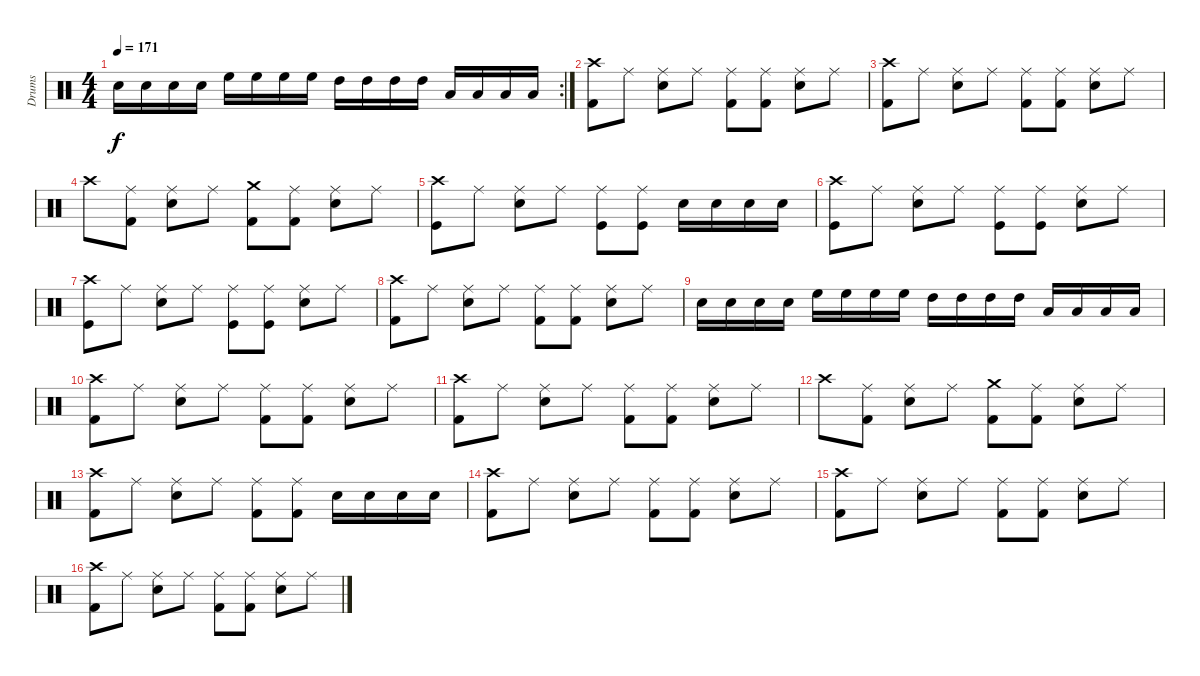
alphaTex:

\track ("Drums" "Drums") {instrument percussion}
\staff {score}
\articulation defaults
\rc 2
\ts (4 4)
\tempo 171
\clef neutral
\ks c "Electric Snare (hit)".16{dy f} "Electric Snare (hit)".16 "Electric Snare (hit)".16 "Electric Snare (hit)".16 "High Floor Tom (hit)".16 "High Floor Tom (hit)".16 "High Floor Tom (hit)".16 "High Floor Tom (hit)".16 "High Tom (hit)".16 "High Tom (hit)".16 "High Tom (hit)".16 "High Tom (hit)".16 "Low Tom (hit)".16 "Low Tom (hit)".16 "Low Tom (hit)".16 "Low Tom (hit)".16
|
("Crash high (hit)" "Kick (hit) 2").8 "Ride (middle)".8 ("Ride (middle)" "Electric Snare (hit)").8 "Ride (middle)".8 ("Ride (middle)" "Kick (hit) 2").8 ("Ride (middle)" "Kick (hit) 2").8 ("Ride (middle)" "Electric Snare (hit)").8 "Ride (middle)".8 |
("Crash high (hit)" "Kick (hit) 2").8 "Ride (middle)".8 ("Ride (middle)" "Electric Snare (hit)").8 "Ride (middle)".8 ("Ride (middle)" "Kick (hit) 2").8 ("Ride (middle)" "Kick (hit) 2").8 ("Ride (middle)" "Electric Snare (hit)").8 "Ride (middle)".8 |
"Crash high (hit)".8 ("Ride (middle)" "Kick (hit) 2").8 ("Ride (middle)" "Electric Snare (hit)").8 "Ride (middle)".8 ("Crash medium (hit)" "Kick (hit) 2").8 ("Ride (middle)" "Kick (hit) 2").8 ("Ride (middle)" "Electric Snare (hit)").8 "Ride (middle)".8 |
("Crash high (hit)" "Kick (hit)").8 "Ride (middle)".8 ("Ride (middle)" "Electric Snare (hit)").8 "Ride (middle)".8 ("Ride (middle)" "Kick (hit)").8 ("Ride (middle)" "Kick (hit)").8 "Electric Snare (hit)".16 "Electric Snare (hit)".16 "Electric Snare (hit)".16 "Electric Snare (hit)".16 |
("Crash high (hit)" "Kick (hit)").8 "Ride (middle)".8 ("Ride (middle)" "Electric Snare (hit)").8 "Ride (middle)".8 ("Ride (middle)" "Kick (hit)").8 ("Ride (middle)" "Kick (hit)").8 ("Ride (middle)" "Electric Snare (hit)").8 "Ride (middle)".8 |
("Crash high (hit)" "Kick (hit)").8 "Ride (middle)".8 ("Ride (middle)" "Electric Snare (hit)").8 "Ride (middle)".8 ("Ride (middle)" "Kick (hit)").8 ("Ride (middle)" "Kick (hit)").8 ("Ride (middle)" "Electric Snare (hit)").8 "Ride (middle)".8 |
("Crash high (hit)" "Kick (hit) 2").8 "Ride (middle)".8 ("Ride (middle)" "Electric Snare (hit)").8 "Ride (middle)".8 ("Ride (middle)" "Kick (hit) 2").8 ("Ride (middle)" "Kick (hit) 2").8 ("Ride (middle)" "Electric Snare (hit)").8 "Ride (middle)".8 |
"Electric Snare (hit)".16 "Electric Snare (hit)".16 "Electric Snare (hit)".16 "Electric Snare (hit)".16 "High Floor Tom (hit)".16 "High Floor Tom (hit)".16 "High Floor Tom (hit)".16 "High Floor Tom (hit)".16 "High Tom (hit)".16 "High Tom (hit)".16 "High Tom (hit)".16 "High Tom (hit)".16 "Low Tom (hit)".16 "Low Tom (hit)".16 "Low Tom (hit)".16 "Low Tom (hit)".16 |
("Crash high (hit)" "Kick (hit) 2").8 "Ride (middle)".8 ("Ride (middle)" "Electric Snare (hit)").8 "Ride (middle)".8 ("Ride (middle)" "Kick (hit) 2").8 ("Ride (middle)" "Kick (hit) 2").8 ("Ride (middle)" "Electric Snare (hit)").8 "Ride (middle)".8 |
("Crash high (hit)" "Kick (hit) 2").8 "Ride (middle)".8 ("Ride (middle)" "Electric Snare (hit)").8 "Ride (middle)".8 ("Ride (middle)" "Kick (hit) 2").8 ("Ride (middle)" "Kick (hit) 2").8 ("Ride (middle)" "Electric Snare (hit)").8 "Ride (middle)".8 |
"Crash high (hit)".8 ("Ride (middle)" "Kick (hit) 2").8 ("Ride (middle)" "Electric Snare (hit)").8 "Ride (middle)".8 ("Crash medium (hit)" "Kick (hit) 2").8 ("Ride (middle)" "Kick (hit) 2").8 ("Ride (middle)" "Electric Snare (hit)").8 "Ride (middle)".8 |
("Crash high (hit)" "Kick (hit) 2").8 "Ride (middle)".8 ("Ride (middle)" "Electric Snare (hit)").8 "Ride (middle)".8 ("Ride (middle)" "Kick (hit) 2").8 ("Ride (middle)" "Kick (hit) 2").8 "Electric Snare (hit)".16 "Electric Snare (hit)".16 "Electric Snare (hit)".16 "Electric Snare (hit)".16 |
("Crash high (hit)" "Kick (hit) 2").8 "Ride (middle)".8 ("Ride (middle)" "Electric Snare (hit)").8 "Ride (middle)".8 ("Ride (middle)" "Kick (hit) 2").8 ("Ride (middle)" "Kick (hit) 2").8 ("Ride (middle)" "Electric Snare (hit)").8 "Ride (middle)".8 |
("Crash high (hit)" "Kick (hit) 2").8 "Ride (middle)".8 ("Ride (middle)" "Electric Snare (hit)").8 "Ride (middle)".8 ("Ride (middle)" "Kick (hit) 2").8 ("Ride (middle)" "Kick (hit) 2").8 ("Ride (middle)" "Electric Snare (hit)").8 "Ride (middle)".8 |
("Crash high (hit)" "Kick (hit) 2").8 "Ride (middle)".8 ("Ride (middle)" "Electric Snare (hit)").8 "Ride (middle)".8 ("Ride (middle)" "Kick (hit) 2").8 ("Ride (middle)" "Kick (hit) 2").8 ("Ride (middle)" "Electric Snare (hit)").8 "Ride (middle)".8
